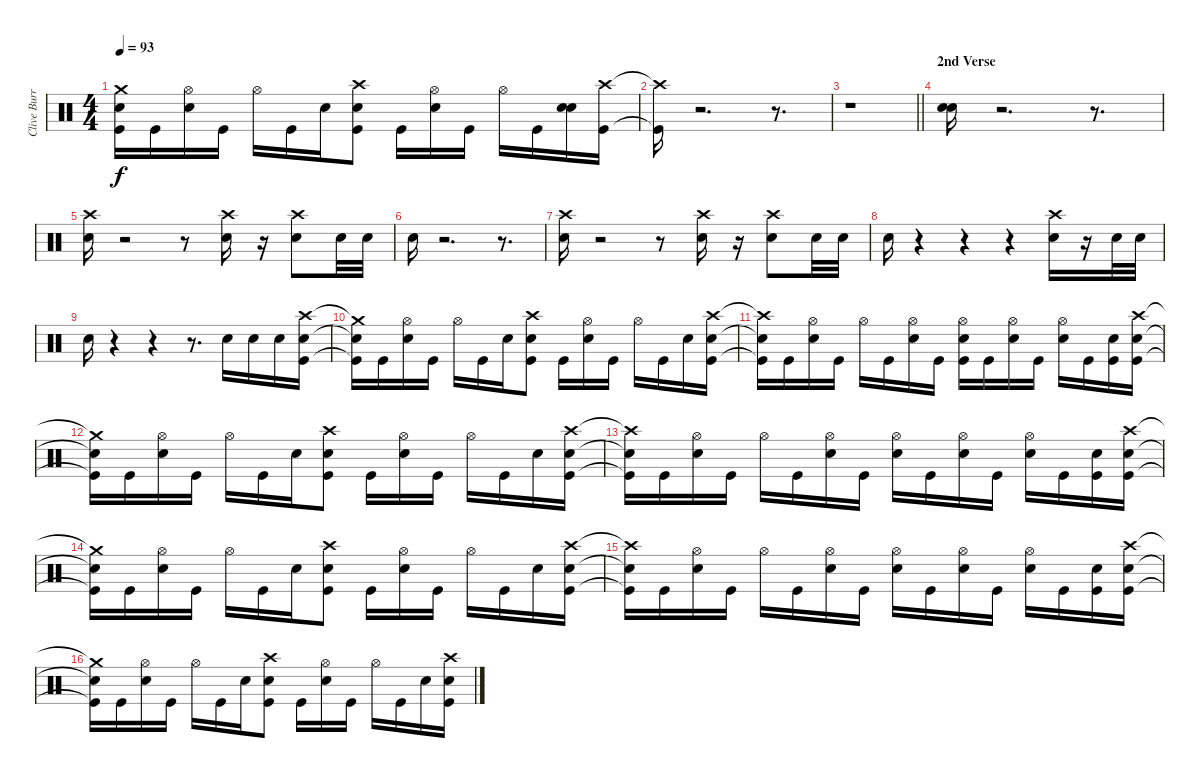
\track ("Clive Burr" "Clive Burr") {instrument percussion}
\staff {score}
\articulation defaults
\ts (4 4)
\tempo 93
\clef neutral
\ks c
("Crash medium (hit)"{t} "Electric Snare (hit)"{t} "Kick (hit)"{t}).16{dy f} "Kick (hit)".16 ("Hi-Hat (open)" "Electric Snare (hit)").16 "Kick (hit)".16 "Hi-Hat (open)".16 "Kick (hit)".16 "Electric Snare (hit)".16 ("Crash high (hit)" "Electric Snare (hit)" "Kick (hit)").8 "Kick (hit)".16 ("Hi-Hat (open)" "Electric Snare (hit)").16 "Kick (hit)".16 "Hi-Hat (open)".16 "Kick (hit)".16 ("Electric Snare (hit)" "Electric Snare (hit)").16 ("Crash high (hit)" "Kick (hit)").16 |
("Crash high (hit)"{t} "Kick (hit)"{t}).16 r.2{d} r.8{d} |
\barLineRight lightlight
r.1 |
\section ("" "2nd Verse")
("Electric Snare (hit)" "Electric Snare (hit)").16 r.2{d} r.8{d} |
("Crash high (hit)" "Electric Snare (hit)").16 r.2 r.8 ("Crash high (hit)" "Electric Snare (hit)").16 r.16 ("Crash high (hit)" "Electric Snare (hit)").8 "Electric Snare (hit)".32 "Electric Snare (hit)".32 |
"Electric Snare (hit)".16 r.2{d} r.8{d} |
("Crash high (hit)" "Electric Snare (hit)").16 r.2 r.8 ("Crash high (hit)" "Electric Snare (hit)").16 r.16 ("Crash high (hit)" "Electric Snare (hit)").8 "Electric Snare (hit)".32 "Electric Snare (hit)".32 |
"Electric Snare (hit)".16 r.4 r.4 r.4 ("Crash high (hit)" "Electric Snare (hit)").16 r.16 "Electric Snare (hit)".32 "Electric Snare (hit)".32 |
"Electric Snare (hit)".16 r.4 r.4 r.8{d} "Electric Snare (hit)".16 "Electric Snare (hit)".16 "Electric Snare (hit)".16 ("Crash high (hit)" "Electric Snare (hit)" "Kick (hit)").16 |
("Crash medium (hit)"{t} "Electric Snare (hit)"{t} "Kick (hit)"{t}).16 "Kick (hit)".16 ("Hi-Hat (open)" "Electric Snare (hit)").16 "Kick (hit)".16 "Hi-Hat (open)".16 "Kick (hit)".16 "Electric Snare (hit)".16 ("Crash high (hit)" "Electric Snare (hit)" "Kick (hit)").8 "Kick (hit)".16 ("Hi-Hat (open)" "Electric Snare (hit)").16 "Kick (hit)".16 "Hi-Hat (open)".16 "Kick (hit)".16 "Electric Snare (hit)".16 ("Crash high (hit)" "Electric Snare (hit)" "Kick (hit)").16 |
("Crash high (hit)"{t} "Electric Snare (hit)"{t} "Kick (hit)"{t}).16 "Kick (hit)".16 ("Electric Snare (hit)" "Hi-Hat (open)").16 "Kick (hit)".16 "Hi-Hat (open)".16 "Kick (hit)".16 ("Electric Snare (hit)" "Hi-Hat (open)").16 "Kick (hit)".16 ("Electric Snare (hit)" "Hi-Hat (open)" "Kick (hit)").16 "Kick (hit)".16 ("Electric Snare (hit)" "Hi-Hat (open)").16 "Kick (hit)".16 ("Electric Snare (hit)" "Hi-Hat (open)").16 "Kick (hit)".16 ("Electric Snare (hit)" "Kick (hit)").16 ("Crash high (hit)" "Electric Snare (hit)" "Kick (hit)").16 |
("Crash medium (hit)"{t} "Electric Snare (hit)"{t} "Kick (hit)"{t}).16 "Kick (hit)".16 ("Hi-Hat (open)" "Electric Snare (hit)").16 "Kick (hit)".16 "Hi-Hat (open)".16 "Kick (hit)".16 "Electric Snare (hit)".16 ("Crash high (hit)" "Electric Snare (hit)" "Kick (hit)").8 "Kick (hit)".16 ("Hi-Hat (open)" "Electric Snare (hit)").16 "Kick (hit)".16 "Hi-Hat (open)".16 "Kick (hit)".16 "Electric Snare (hit)".16 ("Crash high (hit)" "Electric Snare (hit)" "Kick (hit)").16 |
("Crash high (hit)"{t} "Electric Snare (hit)"{t} "Kick (hit)"{t}).16 "Kick (hit)".16 ("Electric Snare (hit)" "Hi-Hat (open)").16 "Kick (hit)".16 "Hi-Hat (open)".16 "Kick (hit)".16 ("Electric Snare (hit)" "Hi-Hat (open)").16 "Kick (hit)".16 ("Electric Snare (hit)" "Hi-Hat (open)").16 "Kick (hit)".16 ("Electric Snare (hit)" "Hi-Hat (open)").16 "Kick (hit)".16 ("Electric Snare (hit)" "Hi-Hat (open)").16 "Kick (hit)".16 ("Electric Snare (hit)" "Kick (hit)").16 ("Crash high (hit)" "Electric Snare (hit)" "Kick (hit)").16 |
("Crash medium (hit)"{t} "Electric Snare (hit)"{t} "Kick (hit)"{t}).16 "Kick (hit)".16 ("Hi-Hat (open)" "Electric Snare (hit)").16 "Kick (hit)".16 "Hi-Hat (open)".16 "Kick (hit)".16 "Electric Snare (hit)".16 ("Crash high (hit)" "Electric Snare (hit)" "Kick (hit)").8 "Kick (hit)".16 ("Hi-Hat (open)" "Electric Snare (hit)").16 "Kick (hit)".16 "Hi-Hat (open)".16 "Kick (hit)".16 "Electric Snare (hit)".16 ("Crash high (hit)" "Electric Snare (hit)" "Kick (hit)").16 |
("Crash high (hit)"{t} "Electric Snare (hit)"{t} "Kick (hit)"{t}).16 "Kick (hit)".16 ("Electric Snare (hit)" "Hi-Hat (open)").16 "Kick (hit)".16 "Hi-Hat (open)".16 "Kick (hit)".16 ("Electric Snare (hit)" "Hi-Hat (open)").16 "Kick (hit)".16 ("Electric Snare (hit)" "Hi-Hat (open)").16 "Kick (hit)".16 ("Electric Snare (hit)" "Hi-Hat (open)").16 "Kick (hit)".16 ("Electric Snare (hit)" "Hi-Hat (open)").16 "Kick (hit)".16 ("Electric Snare (hit)" "Kick (hit)").16 ("Crash high (hit)" "Electric Snare (hit)" "Kick (hit)").16 |
("Crash medium (hit)"{t} "Electric Snare (hit)"{t} "Kick (hit)"{t}).16 "Kick (hit)".16 ("Hi-Hat (open)" "Electric Snare (hit)").16 "Kick (hit)".16 "Hi-Hat (open)".16 "Kick (hit)".16 "Electric Snare (hit)".16 ("Crash high (hit)" "Electric Snare (hit)" "Kick (hit)").8 "Kick (hit)".16 ("Hi-Hat (open)" "Electric Snare (hit)").16 "Kick (hit)".16 "Hi-Hat (open)".16 "Kick (hit)".16 "Electric Snare (hit)".16 ("Crash high (hit)" "Electric Snare (hit)" "Kick (hit)").16
